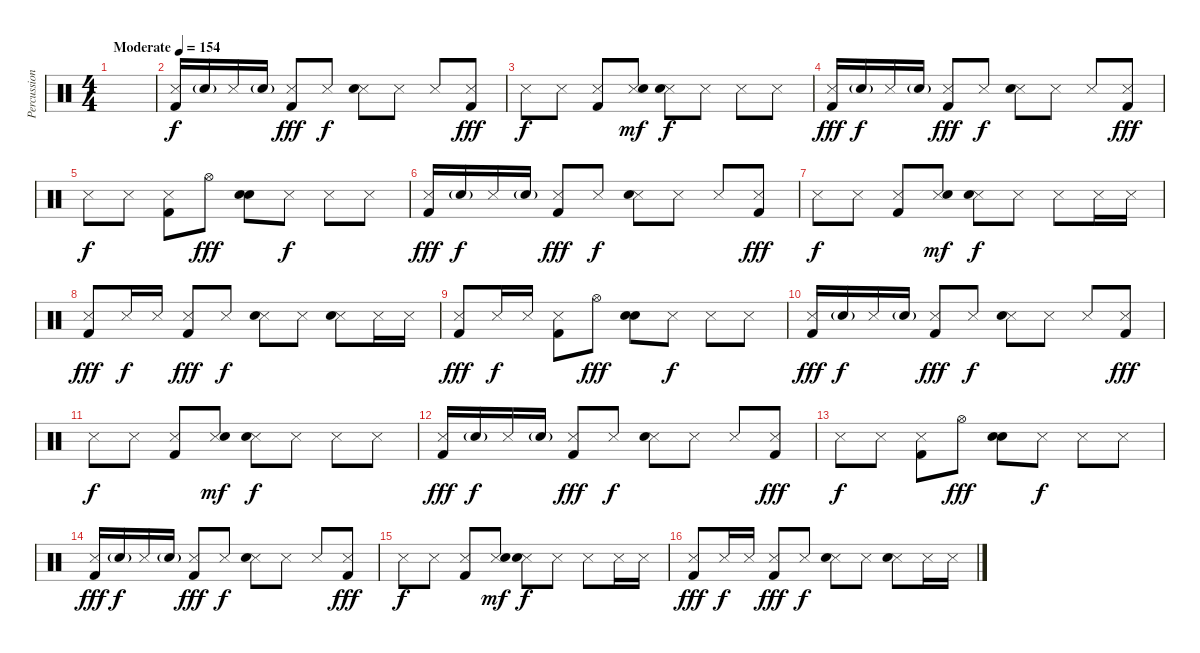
\track ("Percussion" "Percussion") {instrument percussion}
\staff {score}
\articulation defaults
\ts (4 4)
\tempo (154 "Moderate")
\clef neutral
\ks c
|
("Snare (side stick) 3" "Kick (hit) 2").16 "Snare (hit) 2"{g}.16{dy f} "Snare (side stick) 3".16 "Snare (hit) 2"{g}.16 ("Snare (side stick) 3" "Kick (hit) 2").8{dy fff} "Snare (side stick) 3".8{dy f} ("Snare (side stick) 3" "Electric Snare (hit)").8 "Snare (side stick) 3".8 "Snare (side stick) 3".8 ("Snare (side stick) 3" "Kick (hit) 2").8{dy fff} |
"Snare (side stick) 3".8{dy f} "Snare (side stick) 3".8 ("Snare (side stick) 3" "Kick (hit) 2").8 ("Snare (side stick) 3" "Snare (hit) 2").8{dy mf} ("Snare (side stick) 3" "Electric Snare (hit)").8{dy f} "Snare (side stick) 3".8 "Snare (side stick) 3".8 "Snare (side stick) 3".8 |
("Snare (side stick) 3" "Kick (hit) 2").16{dy fff} "Snare (hit) 2"{g}.16{dy f} "Snare (side stick) 3".16 "Snare (hit) 2"{g}.16 ("Snare (side stick) 3" "Kick (hit) 2").8{dy fff} "Snare (side stick) 3".8{dy f} ("Snare (side stick) 3" "Electric Snare (hit)").8 "Snare (side stick) 3".8 "Snare (side stick) 3".8 ("Snare (side stick) 3" "Kick (hit) 2").8{dy fff} |
"Snare (side stick) 3".8{dy f} "Snare (side stick) 3".8 ("Snare (side stick) 3" "Kick (hit) 2").8 "Hi-Hat (open)".8{dy fff} ("Snare (hit) 2" "Snare (hit) 2").8{bd 30} "Snare (side stick) 3".8{dy f} "Snare (side stick) 3".8 "Snare (side stick) 3".8 |
("Snare (side stick) 3" "Kick (hit) 2").16{dy fff} "Snare (hit) 2"{g}.16{dy f} "Snare (side stick) 3".16 "Snare (hit) 2"{g}.16 ("Snare (side stick) 3" "Kick (hit) 2").8{dy fff} "Snare (side stick) 3".8{dy f} ("Snare (side stick) 3" "Electric Snare (hit)").8 "Snare (side stick) 3".8 "Snare (side stick) 3".8 ("Snare (side stick) 3" "Kick (hit) 2").8{dy fff} |
"Snare (side stick) 3".8{dy f} "Snare (side stick) 3".8 ("Snare (side stick) 3" "Kick (hit) 2").8 ("Snare (side stick) 3" "Snare (hit) 2").8{dy mf} ("Snare (side stick) 3" "Electric Snare (hit)").8{dy f} "Snare (side stick) 3".8 "Snare (side stick) 3".8 "Snare (side stick) 3".16 "Snare (side stick) 3".16 |
("Snare (side stick) 3" "Kick (hit) 2").8{dy fff} "Snare (side stick) 3".16{dy f} "Snare (side stick) 3".16 ("Snare (side stick) 3" "Kick (hit) 2").8{dy fff} "Snare (side stick) 3".8{dy f} ("Snare (side stick) 3" "Electric Snare (hit)").8 "Snare (side stick) 3".8 ("Snare (side stick) 3" "Electric Snare (hit)").8 "Snare (side stick) 3".16 "Snare (side stick) 3".16 |
("Snare (side stick) 3" "Kick (hit) 2").8{dy fff} "Snare (side stick) 3".16{dy f} "Snare (side stick) 3".16 ("Snare (side stick) 3" "Kick (hit) 2").8 "Hi-Hat (open)".8{dy fff} ("Snare (hit) 2" "Snare (hit) 2").8{bd 30} "Snare (side stick) 3".8{dy f} "Snare (side stick) 3".8 "Snare (side stick) 3".8 |
("Snare (side stick) 3" "Kick (hit) 2").16{dy fff} "Snare (hit) 2"{g}.16{dy f} "Snare (side stick) 3".16 "Snare (hit) 2"{g}.16 ("Snare (side stick) 3" "Kick (hit) 2").8{dy fff} "Snare (side stick) 3".8{dy f} ("Snare (side stick) 3" "Electric Snare (hit)").8 "Snare (side stick) 3".8 "Snare (side stick) 3".8 ("Snare (side stick) 3" "Kick (hit) 2").8{dy fff} |
"Snare (side stick) 3".8{dy f} "Snare (side stick) 3".8 ("Snare (side stick) 3" "Kick (hit) 2").8 ("Snare (side stick) 3" "Snare (hit) 2").8{dy mf} ("Snare (side stick) 3" "Electric Snare (hit)").8{dy f} "Snare (side stick) 3".8 "Snare (side stick) 3".8 "Snare (side stick) 3".8 |
("Snare (side stick) 3" "Kick (hit) 2").16{dy fff} "Snare (hit) 2"{g}.16{dy f} "Snare (side stick) 3".16 "Snare (hit) 2"{g}.16 ("Snare (side stick) 3" "Kick (hit) 2").8{dy fff} "Snare (side stick) 3".8{dy f} ("Snare (side stick) 3" "Electric Snare (hit)").8 "Snare (side stick) 3".8 "Snare (side stick) 3".8{volume 16} ("Snare (side stick) 3" "Kick (hit) 2").8{dy fff} |
"Snare (side stick) 3".8{dy f} "Snare (side stick) 3".8 ("Snare (side stick) 3" "Kick (hit) 2").8 "Hi-Hat (open)".8{dy fff} ("Snare (hit) 2" "Snare (hit) 2").8{bd 30} "Snare (side stick) 3".8{dy f} "Snare (side stick) 3".8 "Snare (side stick) 3".8 |
("Snare (side stick) 3" "Kick (hit) 2").16{dy fff} "Snare (hit) 2"{g}.16{dy f} "Snare (side stick) 3".16 "Snare (hit) 2"{g}.16 ("Snare (side stick) 3" "Kick (hit) 2").8{dy fff} "Snare (side stick) 3".8{dy f} ("Snare (side stick) 3" "Electric Snare (hit)").8 "Snare (side stick) 3".8 "Snare (side stick) 3".8 ("Snare (side stick) 3" "Kick (hit) 2").8{dy fff} |
"Snare (side stick) 3".8{dy f} "Snare (side stick) 3".8 ("Snare (side stick) 3" "Kick (hit) 2").8 ("Snare (side stick) 3" "Snare (hit) 2").8{dy mf} ("Snare (side stick) 3" "Electric Snare (hit)").8{dy f} "Snare (side stick) 3".8 "Snare (side stick) 3".8 "Snare (side stick) 3".16 "Snare (side stick) 3".16 |
("Snare (side stick) 3" "Kick (hit) 2").8{dy fff} "Snare (side stick) 3".16{dy f} "Snare (side stick) 3".16 ("Snare (side stick) 3" "Kick (hit) 2").8{dy fff} "Snare (side stick) 3".8{dy f} ("Snare (side stick) 3" "Electric Snare (hit)").8 "Snare (side stick) 3".8 ("Snare (side stick) 3" "Electric Snare (hit)").8 "Snare (side stick) 3".16 "Snare (side stick) 3".16
